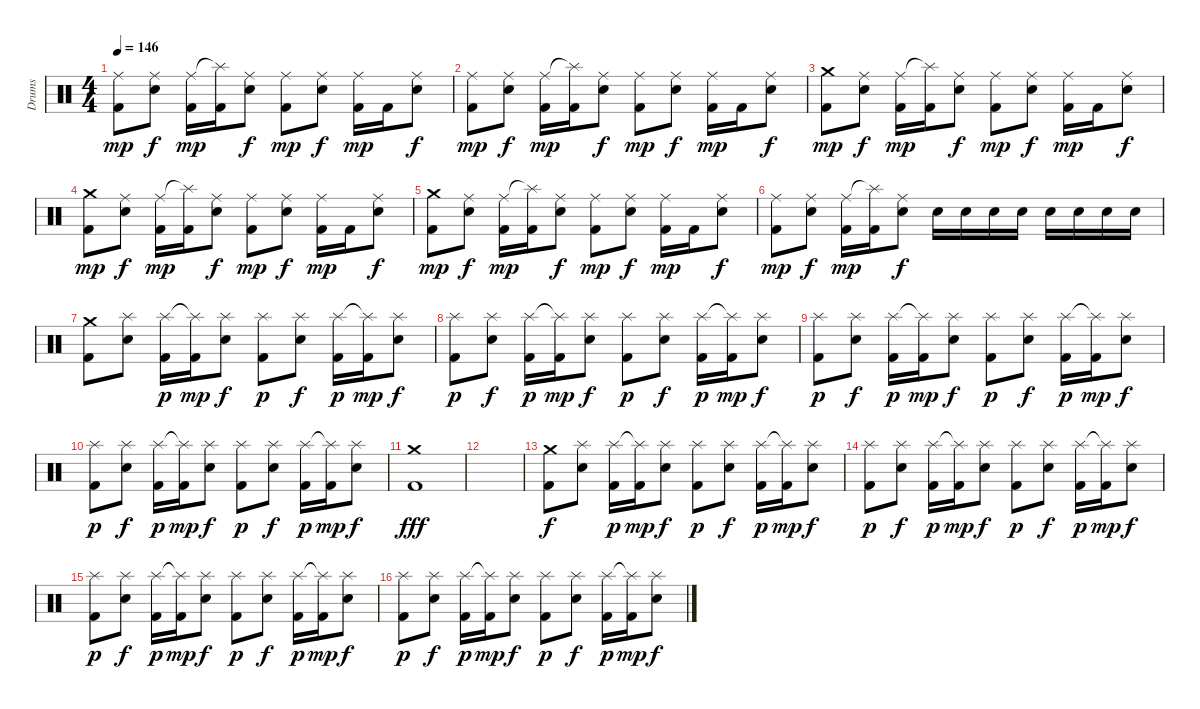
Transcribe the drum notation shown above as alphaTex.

\track ("Drums" "Drums") {instrument percussion}
\staff {score}
\articulation defaults
\ts (4 4)
\tempo 146
\clef neutral
\ks c
("Ride (middle)" "Kick (hit) 2").8{dy mp} ("Ride (middle)" "Snare (hit) 2").8{dy f} ("Ride (middle)" "Kick (hit) 2").16{dy mp} ("Splash (hit)"{t} "Kick (hit) 2").16 ("Ride (middle)" "Snare (hit) 2").8{dy f} ("Ride (middle)" "Kick (hit) 2").8{dy mp} ("Ride (middle)" "Snare (hit) 2").8{dy f} ("Ride (middle)" "Kick (hit) 2").16{dy mp} "Kick (hit) 2".16 ("Ride (middle)" "Snare (hit) 2").8{dy f} |
("Ride (middle)" "Kick (hit) 2").8{dy mp} ("Ride (middle)" "Snare (hit) 2").8{dy f} ("Ride (middle)" "Kick (hit) 2").16{dy mp} ("Splash (hit)"{t} "Kick (hit) 2").16 ("Ride (middle)" "Snare (hit) 2").8{dy f} ("Ride (middle)" "Kick (hit) 2").8{dy mp} ("Ride (middle)" "Snare (hit) 2").8{dy f} ("Ride (middle)" "Kick (hit) 2").16{dy mp} "Kick (hit) 2".16 ("Ride (middle)" "Snare (hit) 2").8{dy f} |
("Crash medium (hit)" "Kick (hit) 2").8{dy mp} ("Ride (middle)" "Snare (hit) 2").8{dy f} ("Ride (middle)" "Kick (hit) 2").16{dy mp} ("Splash (hit)"{t} "Kick (hit) 2").16 ("Ride (middle)" "Snare (hit) 2").8{dy f} ("Ride (middle)" "Kick (hit) 2").8{dy mp} ("Ride (middle)" "Snare (hit) 2").8{dy f} ("Ride (middle)" "Kick (hit) 2").16{dy mp} "Kick (hit) 2".16 ("Ride (middle)" "Snare (hit) 2").8{dy f} |
("Crash medium (hit)" "Kick (hit) 2").8{dy mp} ("Ride (middle)" "Snare (hit) 2").8{dy f} ("Ride (middle)" "Kick (hit) 2").16{dy mp} ("Splash (hit)"{t} "Kick (hit) 2").16 ("Ride (middle)" "Snare (hit) 2").8{dy f} ("Ride (middle)" "Kick (hit) 2").8{dy mp} ("Ride (middle)" "Snare (hit) 2").8{dy f} ("Ride (middle)" "Kick (hit) 2").16{dy mp} "Kick (hit) 2".16 ("Ride (middle)" "Snare (hit) 2").8{dy f} |
("Crash medium (hit)" "Kick (hit) 2").8{dy mp} ("Ride (middle)" "Snare (hit) 2").8{dy f} ("Ride (middle)" "Kick (hit) 2").16{dy mp} ("Splash (hit)"{t} "Kick (hit) 2").16 ("Ride (middle)" "Snare (hit) 2").8{dy f} ("Ride (middle)" "Kick (hit) 2").8{dy mp} ("Ride (middle)" "Snare (hit) 2").8{dy f} ("Ride (middle)" "Kick (hit) 2").16{dy mp} "Kick (hit) 2".16 ("Ride (middle)" "Snare (hit) 2").8{dy f} |
("Ride (middle)" "Kick (hit) 2").8{dy mp} ("Ride (middle)" "Snare (hit) 2").8{dy f} ("Ride (middle)" "Kick (hit) 2").16{dy mp} ("Splash (hit)"{t} "Kick (hit) 2").16 ("Ride (middle)" "Snare (hit) 2").8{dy f} "Snare (hit) 2".16 "Snare (hit) 2".16 "Snare (hit) 2".16 "Snare (hit) 2".16 "Snare (hit) 2".16 "Snare (hit) 2".16 "Snare (hit) 2".16 "Snare (hit) 2".16 |
("Crash medium (hit)" "Kick (hit) 2").8 ("Splash (hit)" "Snare (hit) 2").8 ("Splash (hit)" "Kick (hit) 2").16{dy p} ("Splash (hit)"{t} "Kick (hit) 2").16{dy mp} ("Splash (hit)" "Snare (hit) 2").8{dy f} ("Splash (hit)" "Kick (hit) 2").8{dy p} ("Splash (hit)" "Snare (hit) 2").8{dy f} ("Splash (hit)" "Kick (hit) 2").16{dy p} ("Splash (hit)"{t} "Kick (hit) 2").16{dy mp} ("Splash (hit)" "Snare (hit) 2").8{dy f} |
("Splash (hit)" "Kick (hit) 2").8{dy p} ("Splash (hit)" "Snare (hit) 2").8{dy f} ("Splash (hit)" "Kick (hit) 2").16{dy p} ("Splash (hit)"{t} "Kick (hit) 2").16{dy mp} ("Splash (hit)" "Snare (hit) 2").8{dy f} ("Splash (hit)" "Kick (hit) 2").8{dy p} ("Splash (hit)" "Snare (hit) 2").8{dy f} ("Splash (hit)" "Kick (hit) 2").16{dy p} ("Splash (hit)"{t} "Kick (hit) 2").16{dy mp} ("Splash (hit)" "Snare (hit) 2").8{dy f} |
("Splash (hit)" "Kick (hit) 2").8{dy p} ("Splash (hit)" "Snare (hit) 2").8{dy f} ("Splash (hit)" "Kick (hit) 2").16{dy p} ("Splash (hit)"{t} "Kick (hit) 2").16{dy mp} ("Splash (hit)" "Snare (hit) 2").8{dy f} ("Splash (hit)" "Kick (hit) 2").8{dy p} ("Splash (hit)" "Snare (hit) 2").8{dy f} ("Splash (hit)" "Kick (hit) 2").16{dy p} ("Splash (hit)"{t} "Kick (hit) 2").16{dy mp} ("Splash (hit)" "Snare (hit) 2").8{dy f} |
("Splash (hit)" "Kick (hit) 2").8{dy p} ("Splash (hit)" "Snare (hit) 2").8{dy f} ("Splash (hit)" "Kick (hit) 2").16{dy p} ("Splash (hit)"{t} "Kick (hit) 2").16{dy mp} ("Splash (hit)" "Snare (hit) 2").8{dy f} ("Splash (hit)" "Kick (hit) 2").8{dy p} ("Splash (hit)" "Snare (hit) 2").8{dy f} ("Splash (hit)" "Kick (hit) 2").16{dy p} ("Splash (hit)"{t} "Kick (hit) 2").16{dy mp} ("Splash (hit)" "Snare (hit) 2").8{dy f} |
("Crash medium (hit)" "Kick (hit) 2").1{dy fff} |
|
("Crash medium (hit)" "Kick (hit) 2").8{dy f} ("Splash (hit)" "Snare (hit) 2").8 ("Splash (hit)" "Kick (hit) 2").16{dy p} ("Splash (hit)"{t} "Kick (hit) 2").16{dy mp} ("Splash (hit)" "Snare (hit) 2").8{dy f} ("Splash (hit)" "Kick (hit) 2").8{dy p} ("Splash (hit)" "Snare (hit) 2").8{dy f} ("Splash (hit)" "Kick (hit) 2").16{dy p} ("Splash (hit)"{t} "Kick (hit) 2").16{dy mp} ("Splash (hit)" "Snare (hit) 2").8{dy f} |
("Splash (hit)" "Kick (hit) 2").8{dy p} ("Splash (hit)" "Snare (hit) 2").8{dy f} ("Splash (hit)" "Kick (hit) 2").16{dy p} ("Splash (hit)"{t} "Kick (hit) 2").16{dy mp} ("Splash (hit)" "Snare (hit) 2").8{dy f} ("Splash (hit)" "Kick (hit) 2").8{dy p} ("Splash (hit)" "Snare (hit) 2").8{dy f} ("Splash (hit)" "Kick (hit) 2").16{dy p} ("Splash (hit)"{t} "Kick (hit) 2").16{dy mp} ("Splash (hit)" "Snare (hit) 2").8{dy f} |
("Splash (hit)" "Kick (hit) 2").8{dy p} ("Splash (hit)" "Snare (hit) 2").8{dy f} ("Splash (hit)" "Kick (hit) 2").16{dy p} ("Splash (hit)"{t} "Kick (hit) 2").16{dy mp} ("Splash (hit)" "Snare (hit) 2").8{dy f} ("Splash (hit)" "Kick (hit) 2").8{dy p} ("Splash (hit)" "Snare (hit) 2").8{dy f} ("Splash (hit)" "Kick (hit) 2").16{dy p} ("Splash (hit)"{t} "Kick (hit) 2").16{dy mp} ("Splash (hit)" "Snare (hit) 2").8{dy f} |
("Splash (hit)" "Kick (hit) 2").8{dy p} ("Splash (hit)" "Snare (hit) 2").8{dy f} ("Splash (hit)" "Kick (hit) 2").16{dy p} ("Splash (hit)"{t} "Kick (hit) 2").16{dy mp} ("Splash (hit)" "Snare (hit) 2").8{dy f} ("Splash (hit)" "Kick (hit) 2").8{dy p} ("Splash (hit)" "Snare (hit) 2").8{dy f} ("Splash (hit)" "Kick (hit) 2").16{dy p} ("Splash (hit)"{t} "Kick (hit) 2").16{dy mp} ("Splash (hit)" "Snare (hit) 2").8{dy f}
